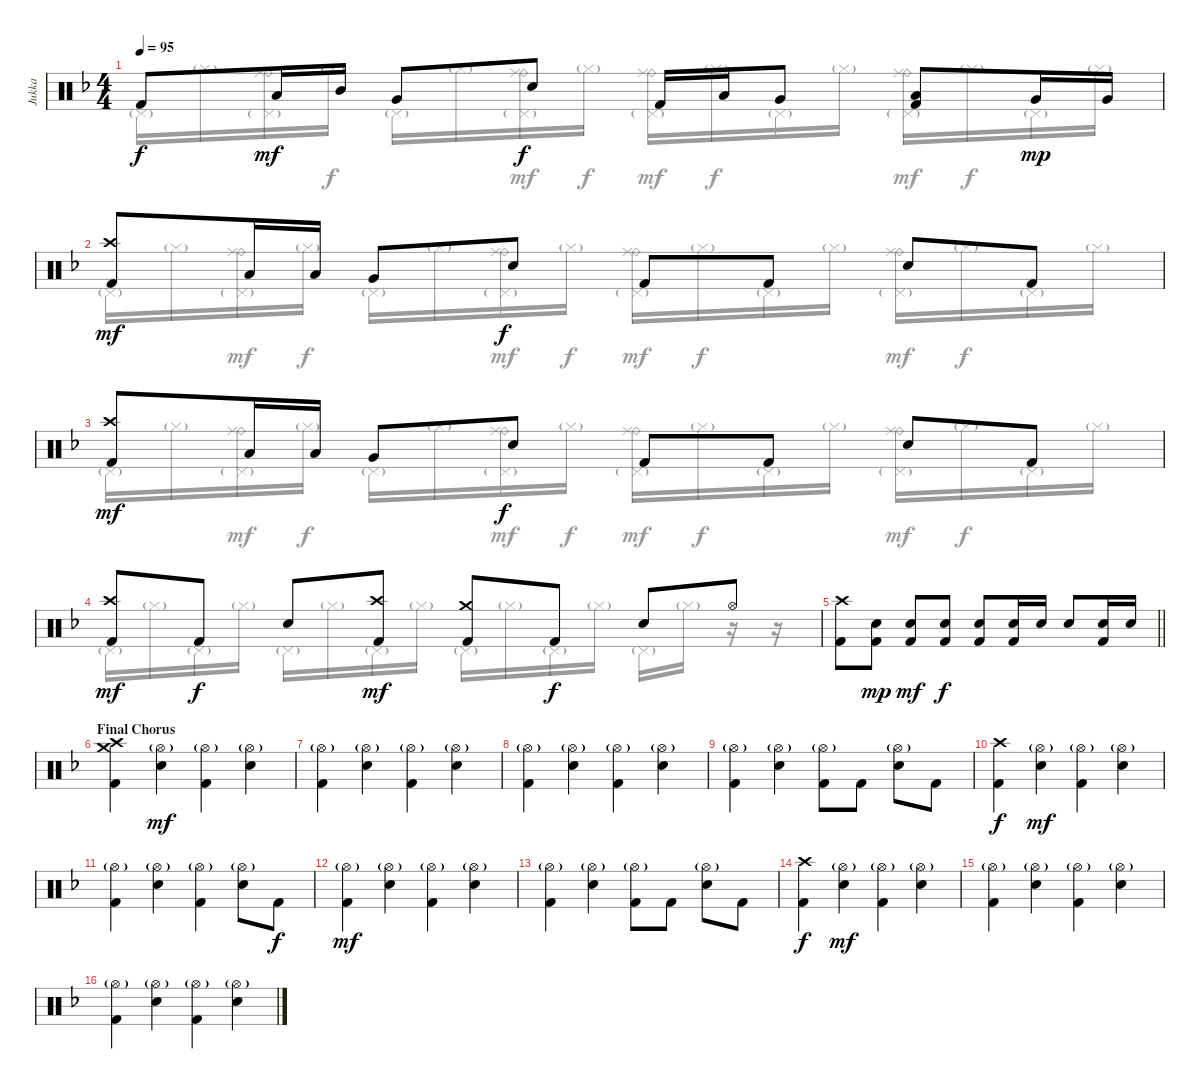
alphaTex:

\track ("Jukka" "Jukka") {instrument percussion}
\staff {score}
\articulation defaults
\voice
\ts (4 4)
\tempo 95
\clef neutral
\ks f "Kick (hit) 2".8{dy f} "Low Tom (hit)".16{dy mf} "Mid Tom (hit)".16 "Very Low Tom (hit)".8 "Electric Snare (hit)".8{dy f} "Kick (hit) 2".16 "Low Tom (hit)".16 "Very Low Tom (hit)".8
("Low Tom (hit)" "Kick (hit) 2").8 "Very Low Tom (hit)".16{dy mp} "Very Low Tom (hit)".16 |
("Crash high (hit)" "Kick (hit) 2").8{dy mf} "Low Tom (hit)".16 "Low Tom (hit)".16 "Very Low Tom (hit)".8 "Electric Snare (hit)".8{dy f} "Kick (hit) 2".8 "Kick (hit) 2".8 "Electric Snare (hit)".8 "Kick (hit) 2".8 |
("Crash high (hit)" "Kick (hit) 2").8{dy mf} "Low Tom (hit)".16 "Low Tom (hit)".16 "Very Low Tom (hit)".8 "Electric Snare (hit)".8{dy f} "Kick (hit) 2".8 "Kick (hit) 2".8 "Electric Snare (hit)".8 "Kick (hit) 2".8 |
("Crash high (hit)" "Kick (hit) 2").8{dy mf} "Kick (hit) 2".8{dy f} "Electric Snare (hit)".8 ("Crash high (hit)" "Kick (hit) 2").8{dy mf} ("Crash medium (hit)" "Kick (hit) 2").8 "Kick (hit) 2".8{dy f} "Electric Snare (hit)".8 "Hi-Hat (open)".8 |
\barLineRight lightlight
("Crash high (hit)" "Kick (hit) 2").8 ("Electric Snare (hit)" "Kick (hit) 2").8{dy mp} ("Electric Snare (hit)" "Kick (hit) 2").8{dy mf} ("Electric Snare (hit)" "Kick (hit) 2").8{dy f} ("Electric Snare (hit)" "Kick (hit) 2").8 ("Electric Snare (hit)" "Kick (hit) 2").16 "Electric Snare (hit)".16 "Electric Snare (hit)".8 ("Electric Snare (hit)" "Kick (hit) 2").16 "Electric Snare (hit)".16 |
\section ("" "Final Chorus")
("Crash high (hit)" "Crash medium (hit)" "Kick (hit) 2").4 ("Hi-Hat (open)"{g} "Electric Snare (hit)").4{dy mf} ("Hi-Hat (open)"{g} "Kick (hit) 2").4 ("Hi-Hat (open)"{g} "Electric Snare (hit)").4 |
("Hi-Hat (open)"{g} "Kick (hit) 2").4 ("Hi-Hat (open)"{g} "Electric Snare (hit)").4 ("Hi-Hat (open)"{g} "Kick (hit) 2").4 ("Hi-Hat (open)"{g} "Electric Snare (hit)").4 |
("Hi-Hat (open)"{g} "Kick (hit) 2").4 ("Hi-Hat (open)"{g} "Electric Snare (hit)").4 ("Hi-Hat (open)"{g} "Kick (hit) 2").4 ("Hi-Hat (open)"{g} "Electric Snare (hit)").4 |
("Hi-Hat (open)"{g} "Kick (hit) 2").4 ("Hi-Hat (open)"{g} "Electric Snare (hit)").4 ("Hi-Hat (open)"{g} "Kick (hit) 2").8 "Kick (hit) 2".8 ("Hi-Hat (open)"{g} "Electric Snare (hit)").8 "Kick (hit) 2".8 |
("Crash high (hit)" "Kick (hit) 2").4{dy f} ("Hi-Hat (open)"{g} "Electric Snare (hit)").4{dy mf} ("Hi-Hat (open)"{g} "Kick (hit) 2").4 ("Hi-Hat (open)"{g} "Electric Snare (hit)").4 |
("Hi-Hat (open)"{g} "Kick (hit) 2").4 ("Hi-Hat (open)"{g} "Electric Snare (hit)").4 ("Hi-Hat (open)"{g} "Kick (hit) 2").4 ("Hi-Hat (open)"{g} "Electric Snare (hit)").8 "Kick (hit) 2".8{dy f} |
("Hi-Hat (open)"{g} "Kick (hit) 2").4{dy mf} ("Hi-Hat (open)"{g} "Electric Snare (hit)").4 ("Hi-Hat (open)"{g} "Kick (hit) 2").4 ("Hi-Hat (open)"{g} "Electric Snare (hit)").4 |
("Hi-Hat (open)"{g} "Kick (hit) 2").4 ("Hi-Hat (open)"{g} "Electric Snare (hit)").4 ("Hi-Hat (open)"{g} "Kick (hit) 2").8 "Kick (hit) 2".8 ("Hi-Hat (open)"{g} "Electric Snare (hit)").8 "Kick (hit) 2".8 |
("Crash high (hit)" "Kick (hit) 2").4{dy f} ("Hi-Hat (open)"{g} "Electric Snare (hit)").4{dy mf} ("Hi-Hat (open)"{g} "Kick (hit) 2").4 ("Hi-Hat (open)"{g} "Electric Snare (hit)").4 |
("Hi-Hat (open)"{g} "Kick (hit) 2").4 ("Hi-Hat (open)"{g} "Electric Snare (hit)").4 ("Hi-Hat (open)"{g} "Kick (hit) 2").4 ("Hi-Hat (open)"{g} "Electric Snare (hit)").4 |
("Hi-Hat (open)"{g} "Kick (hit) 2").4 ("Hi-Hat (open)"{g} "Electric Snare (hit)").4 ("Hi-Hat (open)"{g} "Kick (hit) 2").4 ("Hi-Hat (open)"{g} "Electric Snare (hit)").4
\voice
\clef neutral
\ottava regular
\simile none
\ks f "Pedal Hi-Hat (hit)"{g}.16{dy f} "Hi-Hat (closed)"{g}.16
("Pedal Hi-Hat (hit)"{g} "Ride (bell)" "Ride (middle)").16{dy mf} "Hi-Hat (closed)"{g}.16{dy f} "Pedal Hi-Hat (hit)"{g}.16 "Hi-Hat (closed)"{g}.16 ("Pedal Hi-Hat (hit)"{g} "Ride (bell)" "Ride (middle)").16{dy mf} "Hi-Hat (closed)"{g}.16{dy f} ("Pedal Hi-Hat (hit)"{g} "Ride (bell)" "Ride (middle)").16{dy mf} "Hi-Hat (closed)"{g}.16{dy f} "Pedal Hi-Hat (hit)"{g}.16 "Hi-Hat (closed)"{g}.16 ("Pedal Hi-Hat (hit)"{g} "Ride (bell)" "Ride (middle)").16{dy mf} "Hi-Hat (closed)"{g}.16{dy f} "Pedal Hi-Hat (hit)"{g}.16 "Hi-Hat (closed)"{g}.16 |
"Pedal Hi-Hat (hit)"{g}.16 "Hi-Hat (closed)"{g}.16 ("Pedal Hi-Hat (hit)"{g} "Ride (bell)" "Ride (middle)").16{dy mf} "Hi-Hat (closed)"{g}.16{dy f} "Pedal Hi-Hat (hit)"{g}.16 "Hi-Hat (closed)"{g}.16 ("Pedal Hi-Hat (hit)"{g} "Ride (bell)" "Ride (middle)").16{dy mf} "Hi-Hat (closed)"{g}.16{dy f} ("Pedal Hi-Hat (hit)"{g} "Ride (bell)" "Ride (middle)").16{dy mf} "Hi-Hat (closed)"{g}.16{dy f} "Pedal Hi-Hat (hit)"{g}.16 "Hi-Hat (closed)"{g}.16 ("Pedal Hi-Hat (hit)"{g} "Ride (bell)" "Ride (middle)").16{dy mf} "Hi-Hat (closed)"{g}.16{dy f} "Pedal Hi-Hat (hit)"{g}.16 "Hi-Hat (closed)"{g}.16 |
"Pedal Hi-Hat (hit)"{g}.16 "Hi-Hat (closed)"{g}.16 ("Pedal Hi-Hat (hit)"{g} "Ride (bell)" "Ride (middle)").16{dy mf} "Hi-Hat (closed)"{g}.16{dy f} "Pedal Hi-Hat (hit)"{g}.16 "Hi-Hat (closed)"{g}.16 ("Pedal Hi-Hat (hit)"{g} "Ride (bell)" "Ride (middle)").16{dy mf} "Hi-Hat (closed)"{g}.16{dy f} ("Pedal Hi-Hat (hit)"{g} "Ride (bell)" "Ride (middle)").16{dy mf} "Hi-Hat (closed)"{g}.16{dy f} "Pedal Hi-Hat (hit)"{g}.16 "Hi-Hat (closed)"{g}.16 ("Pedal Hi-Hat (hit)"{g} "Ride (bell)" "Ride (middle)").16{dy mf} "Hi-Hat (closed)"{g}.16{dy f} "Pedal Hi-Hat (hit)"{g}.16 "Hi-Hat (closed)"{g}.16 |
"Pedal Hi-Hat (hit)"{g}.16 "Hi-Hat (closed)"{g}.16 "Pedal Hi-Hat (hit)"{g}.16 "Hi-Hat (closed)"{g}.16 "Pedal Hi-Hat (hit)"{g}.16 "Hi-Hat (closed)"{g}.16 "Pedal Hi-Hat (hit)"{g}.16 "Hi-Hat (closed)"{g}.16 "Pedal Hi-Hat (hit)"{g}.16 "Hi-Hat (closed)"{g}.16 "Pedal Hi-Hat (hit)"{g}.16 "Hi-Hat (closed)"{g}.16 "Pedal Hi-Hat (hit)"{g}.16 "Hi-Hat (closed)"{g}.16 r.16 r.16 |
\barLineRight lightlight
|
|
|
|
|
|
|
|
|
|
|
